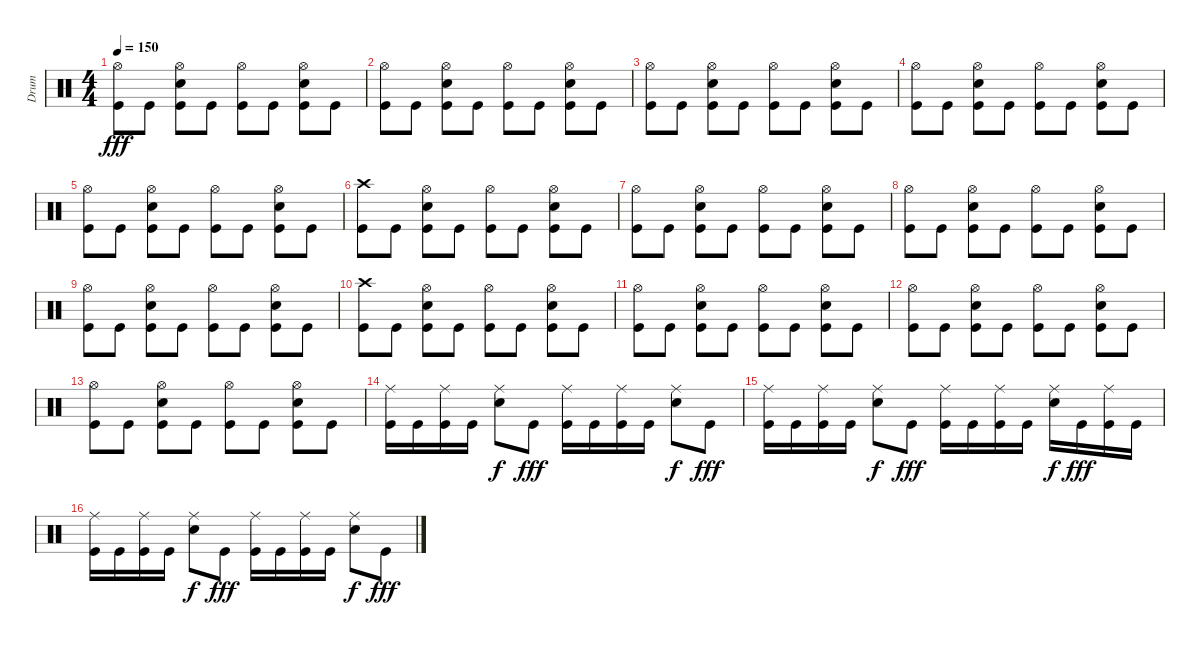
\track ("Drum" "Drum") {instrument percussion}
\staff {score}
\articulation defaults
\ts (4 4)
\tempo 150
\clef neutral
\ks c
("Hi-Hat (open)" "Kick (hit)").8{dy fff} "Kick (hit)".8 ("Hi-Hat (open)" "Snare (hit) 2" "Kick (hit)").8 "Kick (hit)".8 ("Hi-Hat (open)" "Kick (hit)").8 "Kick (hit)".8 ("Hi-Hat (open)" "Snare (hit) 2" "Kick (hit)").8 "Kick (hit)".8 |
("Hi-Hat (open)" "Kick (hit)").8 "Kick (hit)".8 ("Hi-Hat (open)" "Snare (hit) 2" "Kick (hit)").8 "Kick (hit)".8 ("Hi-Hat (open)" "Kick (hit)").8 "Kick (hit)".8 ("Hi-Hat (open)" "Snare (hit) 2" "Kick (hit)").8 "Kick (hit)".8 |
("Hi-Hat (open)" "Kick (hit)").8 "Kick (hit)".8 ("Hi-Hat (open)" "Snare (hit) 2" "Kick (hit)").8 "Kick (hit)".8 ("Hi-Hat (open)" "Kick (hit)").8 "Kick (hit)".8 ("Hi-Hat (open)" "Snare (hit) 2" "Kick (hit)").8 "Kick (hit)".8 |
("Hi-Hat (open)" "Kick (hit)").8 "Kick (hit)".8 ("Hi-Hat (open)" "Snare (hit) 2" "Kick (hit)").8 "Kick (hit)".8 ("Hi-Hat (open)" "Kick (hit)").8 "Kick (hit)".8 ("Hi-Hat (open)" "Snare (hit) 2" "Kick (hit)").8 "Kick (hit)".8 |
("Hi-Hat (open)" "Kick (hit)").8 "Kick (hit)".8 ("Hi-Hat (open)" "Snare (hit) 2" "Kick (hit)").8 "Kick (hit)".8 ("Hi-Hat (open)" "Kick (hit)").8 "Kick (hit)".8 ("Hi-Hat (open)" "Snare (hit) 2" "Kick (hit)").8 "Kick (hit)".8 |
("Crash high (hit)" "Kick (hit)").8 "Kick (hit)".8 ("Hi-Hat (open)" "Snare (hit) 2" "Kick (hit)").8 "Kick (hit)".8 ("Hi-Hat (open)" "Kick (hit)").8 "Kick (hit)".8 ("Hi-Hat (open)" "Snare (hit) 2" "Kick (hit)").8 "Kick (hit)".8 |
("Hi-Hat (open)" "Kick (hit)").8 "Kick (hit)".8 ("Hi-Hat (open)" "Snare (hit) 2" "Kick (hit)").8 "Kick (hit)".8 ("Hi-Hat (open)" "Kick (hit)").8 "Kick (hit)".8 ("Hi-Hat (open)" "Snare (hit) 2" "Kick (hit)").8 "Kick (hit)".8 |
("Hi-Hat (open)" "Kick (hit)").8 "Kick (hit)".8 ("Hi-Hat (open)" "Snare (hit) 2" "Kick (hit)").8 "Kick (hit)".8 ("Hi-Hat (open)" "Kick (hit)").8 "Kick (hit)".8 ("Hi-Hat (open)" "Snare (hit) 2" "Kick (hit)").8 "Kick (hit)".8 |
("Hi-Hat (open)" "Kick (hit)").8 "Kick (hit)".8 ("Hi-Hat (open)" "Snare (hit) 2" "Kick (hit)").8 "Kick (hit)".8 ("Hi-Hat (open)" "Kick (hit)").8 "Kick (hit)".8 ("Hi-Hat (open)" "Snare (hit) 2" "Kick (hit)").8 "Kick (hit)".8 |
("Crash high (hit)" "Kick (hit)").8 "Kick (hit)".8 ("Hi-Hat (open)" "Snare (hit) 2" "Kick (hit)").8 "Kick (hit)".8 ("Hi-Hat (open)" "Kick (hit)").8 "Kick (hit)".8 ("Hi-Hat (open)" "Snare (hit) 2" "Kick (hit)").8 "Kick (hit)".8 |
("Hi-Hat (open)" "Kick (hit)").8 "Kick (hit)".8 ("Hi-Hat (open)" "Snare (hit) 2" "Kick (hit)").8 "Kick (hit)".8 ("Hi-Hat (open)" "Kick (hit)").8 "Kick (hit)".8 ("Hi-Hat (open)" "Snare (hit) 2" "Kick (hit)").8 "Kick (hit)".8 |
("Hi-Hat (open)" "Kick (hit)").8 "Kick (hit)".8 ("Hi-Hat (open)" "Snare (hit) 2" "Kick (hit)").8 "Kick (hit)".8 ("Hi-Hat (open)" "Kick (hit)").8 "Kick (hit)".8 ("Hi-Hat (open)" "Snare (hit) 2" "Kick (hit)").8 "Kick (hit)".8 |
("Hi-Hat (open)" "Kick (hit)").8 "Kick (hit)".8 ("Hi-Hat (open)" "Snare (hit) 2" "Kick (hit)").8 "Kick (hit)".8 ("Hi-Hat (open)" "Kick (hit)").8 "Kick (hit)".8 ("Hi-Hat (open)" "Snare (hit) 2" "Kick (hit)").8 "Kick (hit)".8 |
("Ride (middle)" "Kick (hit)").16 "Kick (hit)".16 ("Ride (middle)" "Kick (hit)").16 "Kick (hit)".16 ("Ride (middle)" "Snare (hit) 2").8{dy f} "Kick (hit)".8{dy fff} ("Ride (middle)" "Kick (hit)").16 "Kick (hit)".16 ("Ride (middle)" "Kick (hit)").16 "Kick (hit)".16 ("Ride (middle)" "Snare (hit) 2").8{dy f} "Kick (hit)".8{dy fff} |
("Ride (middle)" "Kick (hit)").16 "Kick (hit)".16 ("Ride (middle)" "Kick (hit)").16 "Kick (hit)".16 ("Ride (middle)" "Snare (hit) 2").8{dy f} "Kick (hit)".8{dy fff} ("Ride (middle)" "Kick (hit)").16 "Kick (hit)".16 ("Ride (middle)" "Kick (hit)").16 "Kick (hit)".16 ("Ride (middle)" "Snare (hit) 2").16{dy f} "Kick (hit)".16{dy fff} ("Ride (middle)" "Kick (hit)").16 "Kick (hit)".16 |
("Ride (middle)" "Kick (hit)").16 "Kick (hit)".16 ("Ride (middle)" "Kick (hit)").16 "Kick (hit)".16 ("Ride (middle)" "Snare (hit) 2").8{dy f} "Kick (hit)".8{dy fff} ("Ride (middle)" "Kick (hit)").16 "Kick (hit)".16 ("Ride (middle)" "Kick (hit)").16 "Kick (hit)".16 ("Ride (middle)" "Snare (hit) 2").8{dy f} "Kick (hit)".8{dy fff}
